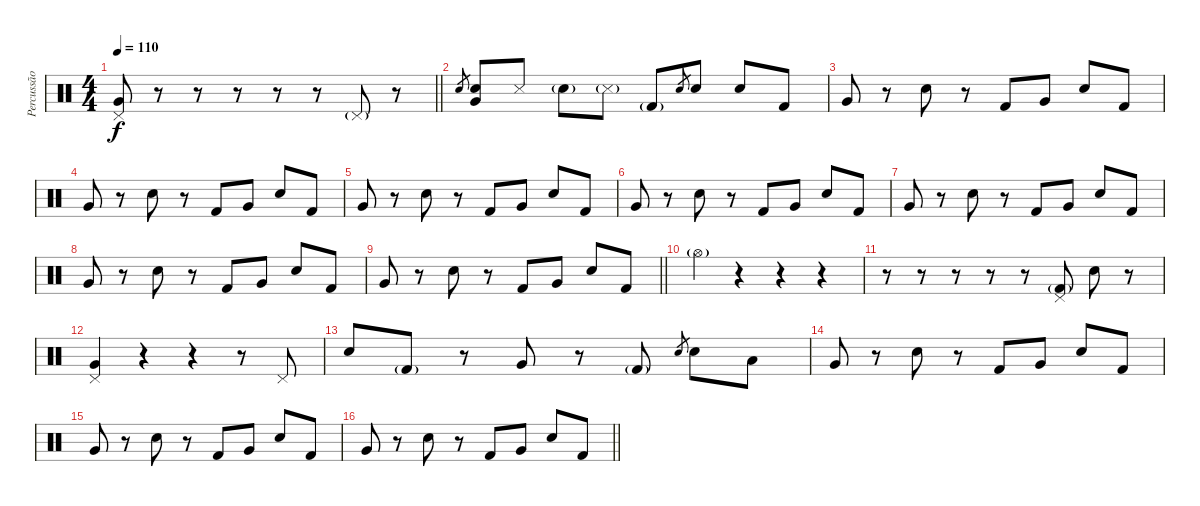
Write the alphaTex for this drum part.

\track ("Percussão" "Percussão") {instrument percussion}
\staff {score}
\articulation defaults
\ts (4 4)
\tempo 110
\clef neutral
\barLineRight lightlight
\ks c
("Pedal Hi-Hat (hit)" "Very Low Tom (hit)").8{dy f} r.8 r.8 r.8 r.8 r.8 "Pedal Hi-Hat (hit)"{g}.8 r.8 |
"Electric Snare (hit)".8{gr} ("Electric Snare (hit)" "Very Low Tom (hit)").8 "Snare (side stick) 3".8 "Electric Snare (hit)"{g}.8 "Snare (side stick) 3"{g}.8 "Kick (hit) 2"{g}.8 "Electric Snare (hit)".8{gr} "Electric Snare (hit)".8 "Electric Snare (hit)".8 "Kick (hit) 2".8 |
"Very Low Tom (hit)".8 r.8 "Electric Snare (hit)".8 r.8 "Kick (hit) 2".8 "Very Low Tom (hit)".8 "Electric Snare (hit)".8 "Kick (hit) 2".8 |
"Very Low Tom (hit)".8 r.8 "Electric Snare (hit)".8 r.8 "Kick (hit) 2".8 "Very Low Tom (hit)".8 "Electric Snare (hit)".8 "Kick (hit) 2".8 |
"Very Low Tom (hit)".8 r.8 "Electric Snare (hit)".8 r.8 "Kick (hit) 2".8 "Very Low Tom (hit)".8 "Electric Snare (hit)".8 "Kick (hit) 2".8 |
"Very Low Tom (hit)".8 r.8 "Electric Snare (hit)".8 r.8 "Kick (hit) 2".8 "Very Low Tom (hit)".8 "Electric Snare (hit)".8 "Kick (hit) 2".8 |
"Very Low Tom (hit)".8 r.8 "Electric Snare (hit)".8 r.8 "Kick (hit) 2".8 "Very Low Tom (hit)".8 "Electric Snare (hit)".8 "Kick (hit) 2".8 |
"Very Low Tom (hit)".8 r.8 "Electric Snare (hit)".8 r.8 "Kick (hit) 2".8 "Very Low Tom (hit)".8 "Electric Snare (hit)".8 "Kick (hit) 2".8 |
\barLineRight lightlight "Very Low Tom (hit)".8
r.8 "Electric Snare (hit)".8 r.8 "Kick (hit) 2".8 "Very Low Tom (hit)".8 "Electric Snare (hit)".8 "Kick (hit) 2".8 |
"Hi-Hat (open)"{g}.4 r.4 r.4 r.4 |
r.8 r.8 r.8 r.8 r.8 ("Pedal Hi-Hat (hit)" "Kick (hit) 2"{g}).8 "Electric Snare (hit)".8 r.8 |
("Pedal Hi-Hat (hit)" "Very Low Tom (hit)").4 r.4 r.4 r.8 "Pedal Hi-Hat (hit)".8 |
"Electric Snare (hit)".8 "Kick (hit) 2"{g}.8 r.8 "Very Low Tom (hit)".8 r.8 "Kick (hit) 2"{g}.8 "Electric Snare (hit)".8{gr} "Electric Snare (hit)".8 "Low Floor Tom (hit)".8 |
"Very Low Tom (hit)".8 r.8 "Electric Snare (hit)".8 r.8 "Kick (hit) 2".8 "Very Low Tom (hit)".8 "Electric Snare (hit)".8 "Kick (hit) 2".8 |
"Very Low Tom (hit)".8 r.8 "Electric Snare (hit)".8 r.8 "Kick (hit) 2".8 "Very Low Tom (hit)".8 "Electric Snare (hit)".8 "Kick (hit) 2".8 |
\barLineRight lightlight "Very Low Tom (hit)".8
r.8 "Electric Snare (hit)".8 r.8 "Kick (hit) 2".8 "Very Low Tom (hit)".8 "Electric Snare (hit)".8 "Kick (hit) 2".8
